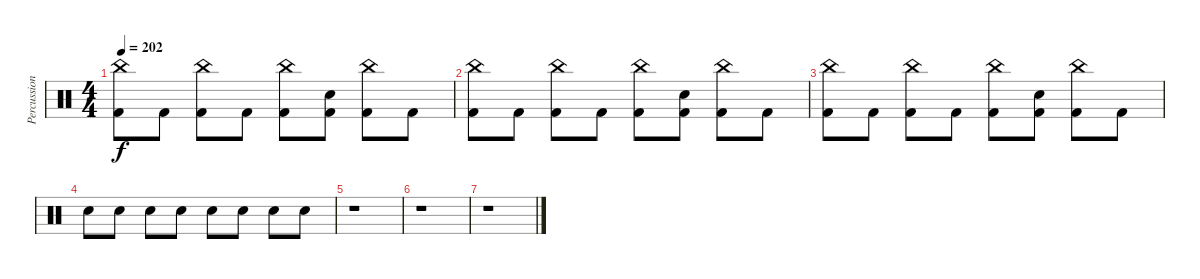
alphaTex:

\track ("Percussion" "Percussion") {instrument percussion}
\staff {score}
\articulation defaults
\ts (4 4)
\tempo 202
\clef neutral
\ks c
("China (hit)" "Kick (hit) 2").8{dy f} "Kick (hit) 2".8 ("China (hit)" "Kick (hit) 2").8 "Kick (hit) 2".8 ("China (hit)" "Kick (hit) 2").8 ("Electric Snare (hit)" "Kick (hit) 2").8 ("China (hit)" "Kick (hit) 2").8 "Kick (hit) 2".8 |
("China (hit)" "Kick (hit) 2").8 "Kick (hit) 2".8 ("China (hit)" "Kick (hit) 2").8 "Kick (hit) 2".8 ("China (hit)" "Kick (hit) 2").8 ("Electric Snare (hit)" "Kick (hit) 2").8 ("China (hit)" "Kick (hit) 2").8 "Kick (hit) 2".8 |
("China (hit)" "Kick (hit) 2").8 "Kick (hit) 2".8 ("China (hit)" "Kick (hit) 2").8 "Kick (hit) 2".8 ("China (hit)" "Kick (hit) 2").8 ("Electric Snare (hit)" "Kick (hit) 2").8 ("China (hit)" "Kick (hit) 2").8 "Kick (hit) 2".8 |
"Electric Snare (hit)".8 "Electric Snare (hit)".8 "Electric Snare (hit)".8 "Electric Snare (hit)".8 "Electric Snare (hit)".8 "Electric Snare (hit)".8 "Electric Snare (hit)".8 "Electric Snare (hit)".8 |
r.1 |
r.1 |
r.1
